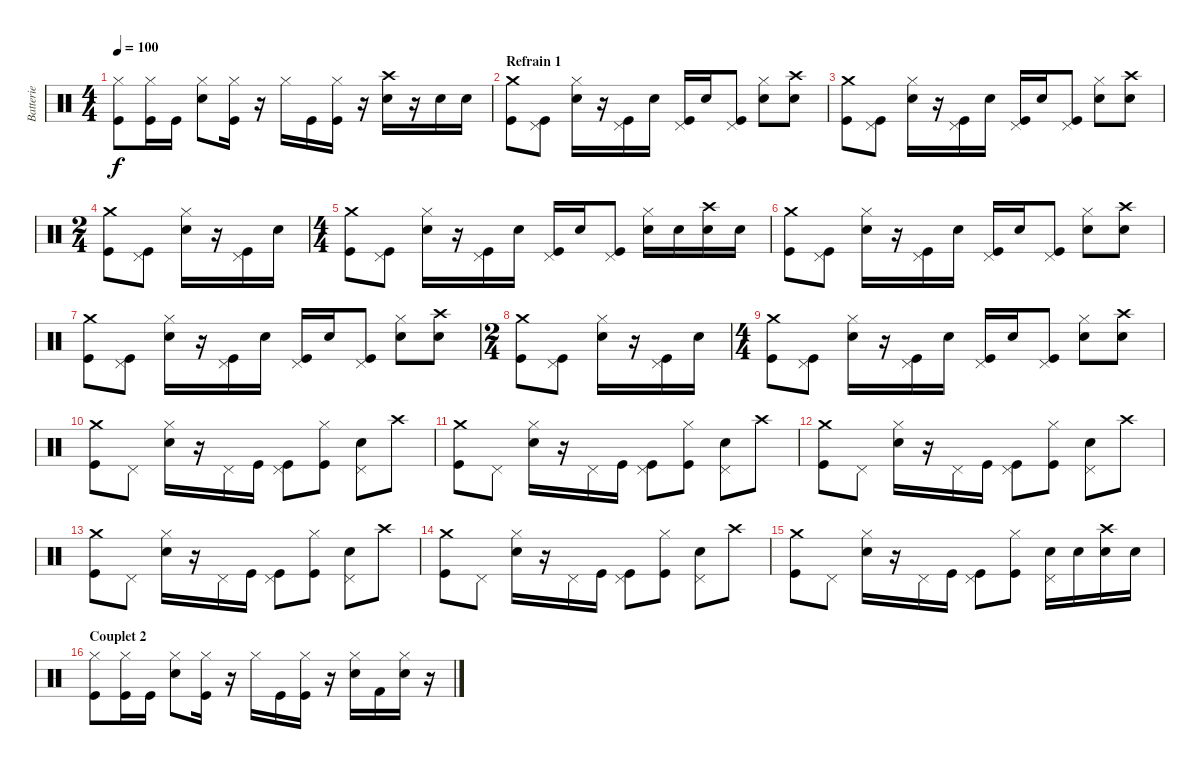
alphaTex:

\track ("Batterie" "Batterie") {instrument percussion}
\staff {score}
\articulation defaults
\ts (4 4)
\tempo 100
\clef neutral
\ks c
("Hi-Hat (closed)" "Kick (hit)").8{dy f} ("Hi-Hat (closed)" "Kick (hit)").16 "Kick (hit)".16 ("Hi-Hat (closed)" "Electric Snare (hit)").8 ("Hi-Hat (closed)" "Kick (hit)").16 r.16 "Hi-Hat (closed)".16 "Kick (hit)".16 ("Hi-Hat (closed)" "Kick (hit)").16 r.16 ("Crash high (hit)" "Electric Snare (hit)").16 r.16 "Electric Snare (hit)".16 "Electric Snare (hit)".16 |
\section ("" "Refrain 1")
("Crash medium (hit)" "Kick (hit)").8 ("Pedal Hi-Hat (hit)" "Kick (hit)").8 ("Hi-Hat (closed)" "Electric Snare (hit)").16 r.16 ("Pedal Hi-Hat (hit)" "Kick (hit)").16 "Electric Snare (hit)".16 ("Pedal Hi-Hat (hit)" "Kick (hit)").16 "Electric Snare (hit)".16 ("Pedal Hi-Hat (hit)" "Kick (hit)").8 ("Hi-Hat (closed)" "Electric Snare (hit)").8 ("Crash high (hit)" "Electric Snare (hit)").8 |
("Crash medium (hit)" "Kick (hit)").8 ("Pedal Hi-Hat (hit)" "Kick (hit)").8 ("Hi-Hat (closed)" "Electric Snare (hit)").16 r.16 ("Pedal Hi-Hat (hit)" "Kick (hit)").16 "Electric Snare (hit)".16 ("Pedal Hi-Hat (hit)" "Kick (hit)").16 "Electric Snare (hit)".16 ("Pedal Hi-Hat (hit)" "Kick (hit)").8 ("Hi-Hat (closed)" "Electric Snare (hit)").8 ("Crash high (hit)" "Electric Snare (hit)").8 |
\ts (2 4)
("Crash medium (hit)" "Kick (hit)").8 ("Pedal Hi-Hat (hit)" "Kick (hit)").8 ("Hi-Hat (closed)" "Electric Snare (hit)").16 r.16 ("Pedal Hi-Hat (hit)" "Kick (hit)").16 "Electric Snare (hit)".16 |
\ts (4 4)
("Crash medium (hit)" "Kick (hit)").8 ("Pedal Hi-Hat (hit)" "Kick (hit)").8 ("Hi-Hat (closed)" "Electric Snare (hit)").16 r.16 ("Pedal Hi-Hat (hit)" "Kick (hit)").16 "Electric Snare (hit)".16 ("Pedal Hi-Hat (hit)" "Kick (hit)").16 "Electric Snare (hit)".16 ("Pedal Hi-Hat (hit)" "Kick (hit)").8 ("Hi-Hat (closed)" "Electric Snare (hit)").16 "Electric Snare (hit)".16 ("Crash high (hit)" "Electric Snare (hit)").16 "Electric Snare (hit)".16 |
("Crash medium (hit)" "Kick (hit)").8 ("Pedal Hi-Hat (hit)" "Kick (hit)").8 ("Hi-Hat (closed)" "Electric Snare (hit)").16 r.16 ("Pedal Hi-Hat (hit)" "Kick (hit)").16 "Electric Snare (hit)".16 ("Pedal Hi-Hat (hit)" "Kick (hit)").16 "Electric Snare (hit)".16 ("Pedal Hi-Hat (hit)" "Kick (hit)").8 ("Hi-Hat (closed)" "Electric Snare (hit)").8 ("Crash high (hit)" "Electric Snare (hit)").8 |
("Crash medium (hit)" "Kick (hit)").8 ("Pedal Hi-Hat (hit)" "Kick (hit)").8 ("Hi-Hat (closed)" "Electric Snare (hit)").16 r.16 ("Pedal Hi-Hat (hit)" "Kick (hit)").16 "Electric Snare (hit)".16 ("Pedal Hi-Hat (hit)" "Kick (hit)").16 "Electric Snare (hit)".16 ("Pedal Hi-Hat (hit)" "Kick (hit)").8 ("Hi-Hat (closed)" "Electric Snare (hit)").8 ("Crash high (hit)" "Electric Snare (hit)").8 |
\ts (2 4)
("Crash medium (hit)" "Kick (hit)").8 ("Pedal Hi-Hat (hit)" "Kick (hit)").8 ("Hi-Hat (closed)" "Electric Snare (hit)").16 r.16 ("Pedal Hi-Hat (hit)" "Kick (hit)").16 "Electric Snare (hit)".16 |
\ts (4 4)
("Crash medium (hit)" "Kick (hit)").8 ("Pedal Hi-Hat (hit)" "Kick (hit)").8 ("Hi-Hat (closed)" "Electric Snare (hit)").16 r.16 ("Pedal Hi-Hat (hit)" "Kick (hit)").16 "Electric Snare (hit)".16 ("Pedal Hi-Hat (hit)" "Kick (hit)").16 "Electric Snare (hit)".16 ("Pedal Hi-Hat (hit)" "Kick (hit)").8 ("Hi-Hat (closed)" "Electric Snare (hit)").8 ("Crash high (hit)" "Electric Snare (hit)").8 |
("Crash medium (hit)" "Kick (hit)").8 "Pedal Hi-Hat (hit)".8 ("Hi-Hat (closed)" "Electric Snare (hit)").16 r.16 "Pedal Hi-Hat (hit)".16 "Kick (hit)".16 ("Pedal Hi-Hat (hit)" "Kick (hit)").8 ("Hi-Hat (closed)" "Kick (hit)").8 ("Pedal Hi-Hat (hit)" "Electric Snare (hit)").8 "Crash high (hit)".8 |
("Crash medium (hit)" "Kick (hit)").8 "Pedal Hi-Hat (hit)".8 ("Hi-Hat (closed)" "Electric Snare (hit)").16 r.16 "Pedal Hi-Hat (hit)".16 "Kick (hit)".16 ("Pedal Hi-Hat (hit)" "Kick (hit)").8 ("Hi-Hat (closed)" "Kick (hit)").8 ("Pedal Hi-Hat (hit)" "Electric Snare (hit)").8 "Crash high (hit)".8 |
("Crash medium (hit)" "Kick (hit)").8 "Pedal Hi-Hat (hit)".8 ("Hi-Hat (closed)" "Electric Snare (hit)").16 r.16 "Pedal Hi-Hat (hit)".16 "Kick (hit)".16 ("Pedal Hi-Hat (hit)" "Kick (hit)").8 ("Hi-Hat (closed)" "Kick (hit)").8 ("Pedal Hi-Hat (hit)" "Electric Snare (hit)").8 "Crash high (hit)".8 |
("Crash medium (hit)" "Kick (hit)").8 "Pedal Hi-Hat (hit)".8 ("Hi-Hat (closed)" "Electric Snare (hit)").16 r.16 "Pedal Hi-Hat (hit)".16 "Kick (hit)".16 ("Pedal Hi-Hat (hit)" "Kick (hit)").8 ("Hi-Hat (closed)" "Kick (hit)").8 ("Pedal Hi-Hat (hit)" "Electric Snare (hit)").8 "Crash high (hit)".8 |
("Crash medium (hit)" "Kick (hit)").8 "Pedal Hi-Hat (hit)".8 ("Hi-Hat (closed)" "Electric Snare (hit)").16 r.16 "Pedal Hi-Hat (hit)".16 "Kick (hit)".16 ("Pedal Hi-Hat (hit)" "Kick (hit)").8 ("Hi-Hat (closed)" "Kick (hit)").8 ("Pedal Hi-Hat (hit)" "Electric Snare (hit)").8 "Crash high (hit)".8 |
("Crash medium (hit)" "Kick (hit)").8 "Pedal Hi-Hat (hit)".8 ("Hi-Hat (closed)" "Electric Snare (hit)").16 r.16 "Pedal Hi-Hat (hit)".16 "Kick (hit)".16 ("Pedal Hi-Hat (hit)" "Kick (hit)").8 ("Hi-Hat (closed)" "Kick (hit)").8 ("Pedal Hi-Hat (hit)" "Electric Snare (hit)").16 "Electric Snare (hit)".16 ("Crash high (hit)" "Electric Snare (hit)").16 "Electric Snare (hit)".16 |
\section ("" "Couplet 2")
("Hi-Hat (closed)" "Kick (hit)").8 ("Hi-Hat (closed)" "Kick (hit)").16 "Kick (hit)".16 ("Hi-Hat (closed)" "Electric Snare (hit)").8 ("Hi-Hat (closed)" "Kick (hit)").16 r.16 "Hi-Hat (closed)".16 "Kick (hit)".16 ("Hi-Hat (closed)" "Kick (hit)").16 r.16 ("Hi-Hat (closed)" "Electric Snare (hit)").16 "Kick (hit) 2".16 ("Hi-Hat (closed)" "Electric Snare (hit)").16 r.16
